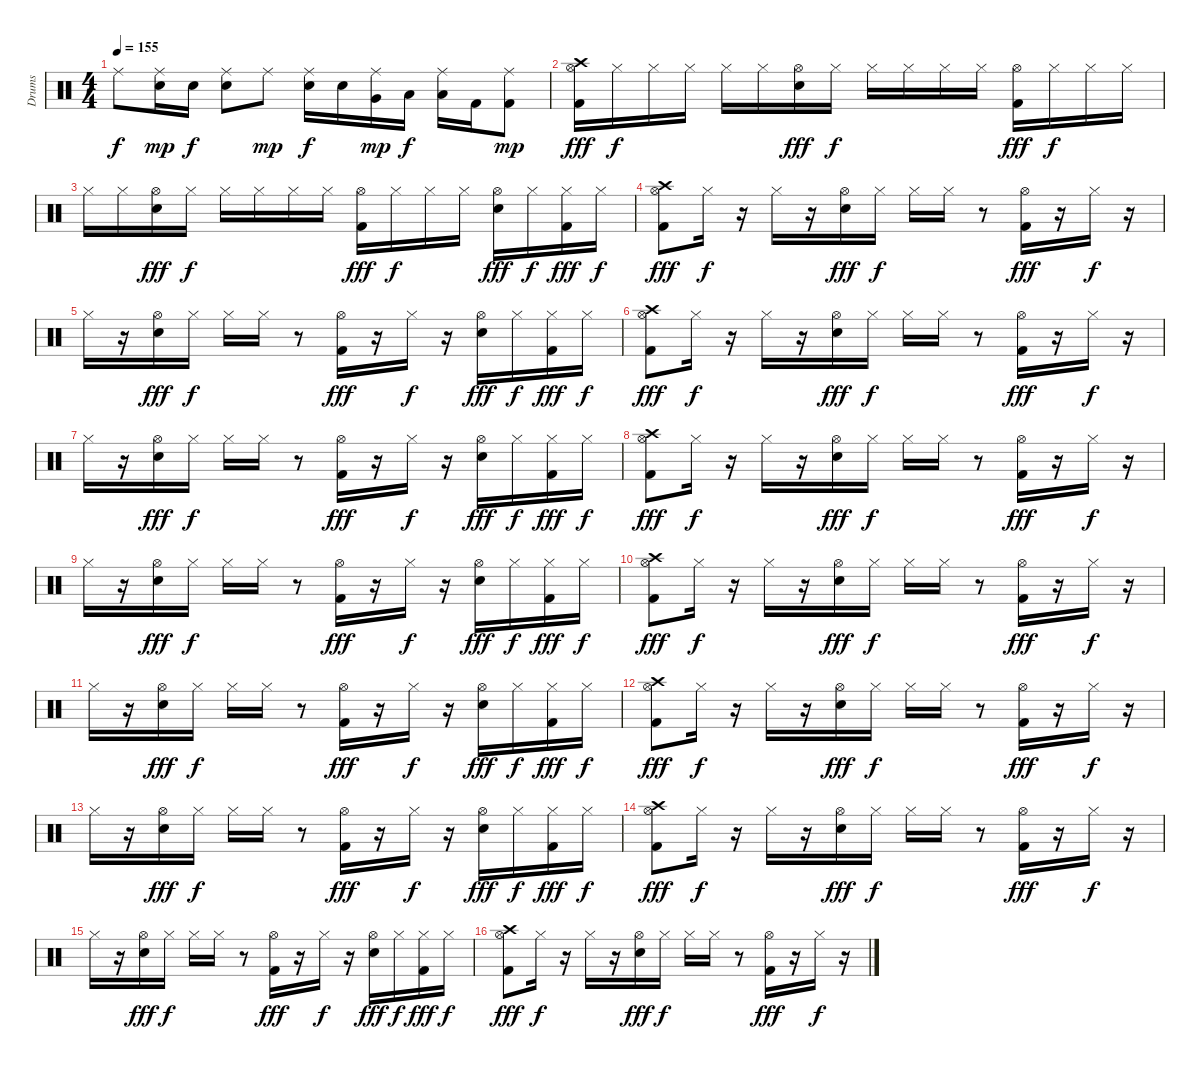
\track ("Drums" "Drums") {instrument percussion}
\staff {score}
\articulation defaults
\ts (4 4)
\tempo 155
\clef neutral
\ks c "Ride (middle)".8{dy f}
("Electric Snare (hit)" "Ride (middle)").16{dy mp} "Electric Snare (hit)".16{dy f} ("Electric Snare (hit)" "Ride (middle)").8 "Ride (middle)".8{dy mp} ("Electric Snare (hit)" "Ride (middle)").16{dy f} "Electric Snare (hit)".16 ("Very Low Tom (hit)" "Ride (middle)").16{dy mp} "Low Floor Tom (hit)".16{dy f} ("Low Floor Tom (hit)" "Ride (middle)").16 "Kick (hit) 2".16 ("Kick (hit) 2" "Ride (middle)").8{dy mp} |
("Crash high (hit)" "Kick (hit) 2" "Hi-Hat (open)").16{dy fff} "Hi-Hat (closed)".16{dy f} "Hi-Hat (closed)".16 "Hi-Hat (closed)".16 "Hi-Hat (closed)".16 "Hi-Hat (closed)".16 ("Hi-Hat (open)" "Electric Snare (hit)").16{dy fff} "Hi-Hat (closed)".16{dy f} "Hi-Hat (closed)".16 "Hi-Hat (closed)".16 "Hi-Hat (closed)".16 "Hi-Hat (closed)".16 ("Hi-Hat (open)" "Kick (hit) 2").16{dy fff} "Hi-Hat (closed)".16{dy f} "Hi-Hat (closed)".16 "Hi-Hat (closed)".16 |
"Hi-Hat (closed)".16 "Hi-Hat (closed)".16 ("Hi-Hat (open)" "Electric Snare (hit)").16{dy fff} "Hi-Hat (closed)".16{dy f} "Hi-Hat (closed)".16 "Hi-Hat (closed)".16 "Hi-Hat (closed)".16 "Hi-Hat (closed)".16 ("Hi-Hat (open)" "Kick (hit) 2").16{dy fff} "Hi-Hat (closed)".16{dy f} "Hi-Hat (closed)".16 "Hi-Hat (closed)".16 ("Hi-Hat (open)" "Electric Snare (hit)").16{dy fff} "Hi-Hat (closed)".16{dy f} ("Hi-Hat (closed)" "Kick (hit) 2").16{dy fff} "Hi-Hat (closed)".16{dy f} |
("Crash high (hit)" "Kick (hit) 2" "Hi-Hat (open)").8{dy fff} "Hi-Hat (closed)".16{dy f} r.16 "Hi-Hat (closed)".16 r.16 ("Hi-Hat (open)" "Electric Snare (hit)").16{dy fff} "Hi-Hat (closed)".16{dy f} "Hi-Hat (closed)".16 "Hi-Hat (closed)".16 r.8 ("Hi-Hat (open)" "Kick (hit) 2").16{dy fff} r.16 "Hi-Hat (closed)".16{dy f} r.16 |
"Hi-Hat (closed)".16 r.16 ("Hi-Hat (open)" "Electric Snare (hit)").16{dy fff} "Hi-Hat (closed)".16{dy f} "Hi-Hat (closed)".16 "Hi-Hat (closed)".16 r.8 ("Hi-Hat (open)" "Kick (hit) 2").16{dy fff} r.16 "Hi-Hat (closed)".16{dy f} r.16 ("Hi-Hat (open)" "Electric Snare (hit)").16{dy fff} "Hi-Hat (closed)".16{dy f} ("Hi-Hat (closed)" "Kick (hit) 2").16{dy fff} "Hi-Hat (closed)".16{dy f} |
("Crash high (hit)" "Kick (hit) 2" "Hi-Hat (open)").8{dy fff} "Hi-Hat (closed)".16{dy f} r.16 "Hi-Hat (closed)".16 r.16 ("Hi-Hat (open)" "Electric Snare (hit)").16{dy fff} "Hi-Hat (closed)".16{dy f} "Hi-Hat (closed)".16 "Hi-Hat (closed)".16 r.8 ("Hi-Hat (open)" "Kick (hit) 2").16{dy fff} r.16 "Hi-Hat (closed)".16{dy f} r.16 |
"Hi-Hat (closed)".16 r.16 ("Hi-Hat (open)" "Electric Snare (hit)").16{dy fff} "Hi-Hat (closed)".16{dy f} "Hi-Hat (closed)".16 "Hi-Hat (closed)".16 r.8 ("Hi-Hat (open)" "Kick (hit) 2").16{dy fff} r.16 "Hi-Hat (closed)".16{dy f} r.16 ("Hi-Hat (open)" "Electric Snare (hit)").16{dy fff} "Hi-Hat (closed)".16{dy f} ("Hi-Hat (closed)" "Kick (hit) 2").16{dy fff} "Hi-Hat (closed)".16{dy f} |
("Crash high (hit)" "Kick (hit) 2" "Hi-Hat (open)").8{dy fff} "Hi-Hat (closed)".16{dy f} r.16 "Hi-Hat (closed)".16 r.16 ("Hi-Hat (open)" "Electric Snare (hit)").16{dy fff} "Hi-Hat (closed)".16{dy f} "Hi-Hat (closed)".16 "Hi-Hat (closed)".16 r.8 ("Hi-Hat (open)" "Kick (hit) 2").16{dy fff} r.16 "Hi-Hat (closed)".16{dy f} r.16 |
"Hi-Hat (closed)".16 r.16 ("Hi-Hat (open)" "Electric Snare (hit)").16{dy fff} "Hi-Hat (closed)".16{dy f} "Hi-Hat (closed)".16 "Hi-Hat (closed)".16 r.8 ("Hi-Hat (open)" "Kick (hit) 2").16{dy fff} r.16 "Hi-Hat (closed)".16{dy f} r.16 ("Hi-Hat (open)" "Electric Snare (hit)").16{dy fff} "Hi-Hat (closed)".16{dy f} ("Hi-Hat (closed)" "Kick (hit) 2").16{dy fff} "Hi-Hat (closed)".16{dy f} |
("Crash high (hit)" "Kick (hit) 2" "Hi-Hat (open)").8{dy fff} "Hi-Hat (closed)".16{dy f} r.16 "Hi-Hat (closed)".16 r.16 ("Hi-Hat (open)" "Electric Snare (hit)").16{dy fff} "Hi-Hat (closed)".16{dy f} "Hi-Hat (closed)".16 "Hi-Hat (closed)".16 r.8 ("Hi-Hat (open)" "Kick (hit) 2").16{dy fff} r.16 "Hi-Hat (closed)".16{dy f} r.16 |
"Hi-Hat (closed)".16 r.16 ("Hi-Hat (open)" "Electric Snare (hit)").16{dy fff} "Hi-Hat (closed)".16{dy f} "Hi-Hat (closed)".16 "Hi-Hat (closed)".16 r.8 ("Hi-Hat (open)" "Kick (hit) 2").16{dy fff} r.16 "Hi-Hat (closed)".16{dy f} r.16 ("Hi-Hat (open)" "Electric Snare (hit)").16{dy fff} "Hi-Hat (closed)".16{dy f} ("Hi-Hat (closed)" "Kick (hit) 2").16{dy fff} "Hi-Hat (closed)".16{dy f} |
("Crash high (hit)" "Kick (hit) 2" "Hi-Hat (open)").8{dy fff} "Hi-Hat (closed)".16{dy f} r.16 "Hi-Hat (closed)".16 r.16 ("Hi-Hat (open)" "Electric Snare (hit)").16{dy fff} "Hi-Hat (closed)".16{dy f} "Hi-Hat (closed)".16 "Hi-Hat (closed)".16 r.8 ("Hi-Hat (open)" "Kick (hit) 2").16{dy fff} r.16 "Hi-Hat (closed)".16{dy f} r.16 |
"Hi-Hat (closed)".16 r.16 ("Hi-Hat (open)" "Electric Snare (hit)").16{dy fff} "Hi-Hat (closed)".16{dy f} "Hi-Hat (closed)".16 "Hi-Hat (closed)".16 r.8 ("Hi-Hat (open)" "Kick (hit) 2").16{dy fff} r.16 "Hi-Hat (closed)".16{dy f} r.16 ("Hi-Hat (open)" "Electric Snare (hit)").16{dy fff} "Hi-Hat (closed)".16{dy f} ("Hi-Hat (closed)" "Kick (hit) 2").16{dy fff} "Hi-Hat (closed)".16{dy f} |
("Crash high (hit)" "Kick (hit) 2" "Hi-Hat (open)").8{dy fff} "Hi-Hat (closed)".16{dy f} r.16 "Hi-Hat (closed)".16 r.16 ("Hi-Hat (open)" "Electric Snare (hit)").16{dy fff} "Hi-Hat (closed)".16{dy f} "Hi-Hat (closed)".16 "Hi-Hat (closed)".16 r.8 ("Hi-Hat (open)" "Kick (hit) 2").16{dy fff} r.16 "Hi-Hat (closed)".16{dy f} r.16 |
"Hi-Hat (closed)".16 r.16 ("Hi-Hat (open)" "Electric Snare (hit)").16{dy fff} "Hi-Hat (closed)".16{dy f} "Hi-Hat (closed)".16 "Hi-Hat (closed)".16 r.8 ("Hi-Hat (open)" "Kick (hit) 2").16{dy fff} r.16 "Hi-Hat (closed)".16{dy f} r.16 ("Hi-Hat (open)" "Electric Snare (hit)").16{dy fff} "Hi-Hat (closed)".16{dy f} ("Hi-Hat (closed)" "Kick (hit) 2").16{dy fff} "Hi-Hat (closed)".16{dy f} |
("Crash high (hit)" "Kick (hit) 2" "Hi-Hat (open)").8{dy fff} "Hi-Hat (closed)".16{dy f} r.16 "Hi-Hat (closed)".16 r.16 ("Hi-Hat (open)" "Electric Snare (hit)").16{dy fff} "Hi-Hat (closed)".16{dy f} "Hi-Hat (closed)".16 "Hi-Hat (closed)".16 r.8 ("Hi-Hat (open)" "Kick (hit) 2").16{dy fff} r.16 "Hi-Hat (closed)".16{dy f} r.16
